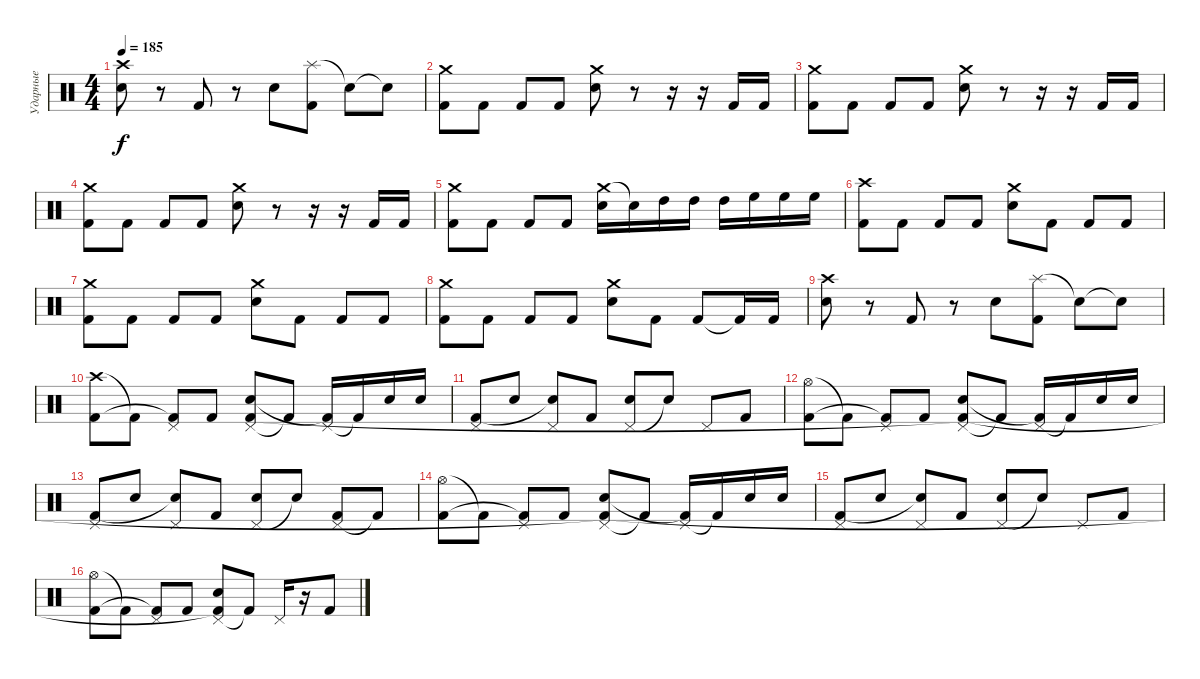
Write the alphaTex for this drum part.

\track ("Ударные" "Ударные") {instrument percussion}
\staff {score}
\articulation defaults
\ts (4 4)
\tempo 185
\clef neutral
\ks c
("Crash high (hit)" "Electric Snare (hit)").8{dy f} r.8 "Kick (hit) 2".8 r.8 "Electric Snare (hit)".8 ("Splash (hit)" "Kick (hit) 2").8 "Snare (hit)"{t}.8 "Snare (hit)"{t}.8 |
("Crash medium (hit)" "Kick (hit) 2").8 "Kick (hit) 2".8 "Kick (hit) 2".8 "Kick (hit) 2".8 ("Crash medium (hit)" "Electric Snare (hit)").8 r.8 r.16 r.16 "Kick (hit) 2".16 "Kick (hit) 2".16 |
("Crash medium (hit)" "Kick (hit) 2").8 "Kick (hit) 2".8 "Kick (hit) 2".8 "Kick (hit) 2".8 ("Crash medium (hit)" "Electric Snare (hit)").8 r.8 r.16 r.16 "Kick (hit) 2".16 "Kick (hit) 2".16 |
("Crash medium (hit)" "Kick (hit) 2").8 "Kick (hit) 2".8 "Kick (hit) 2".8 "Kick (hit) 2".8 ("Crash medium (hit)" "Electric Snare (hit)").8 r.8 r.16 r.16 "Kick (hit) 2".16 "Kick (hit) 2".16 |
("Crash medium (hit)" "Kick (hit) 2").8 "Kick (hit) 2".8 "Kick (hit) 2".8 "Kick (hit) 2".8 ("Crash medium (hit)" "Electric Snare (hit)").16 "Electric Snare (hit)"{t}.16 "High Tom (hit)".16 "High Tom (hit)".16 "High Tom (hit)".16 "High Floor Tom (hit)".16 "High Floor Tom (hit)".16 "High Floor Tom (hit)".16 |
("Crash high (hit)" "Kick (hit) 2").8 "Kick (hit) 2".8 "Kick (hit) 2".8 "Kick (hit) 2".8 ("Crash medium (hit)" "Electric Snare (hit)").8 "Kick (hit) 2".8 "Kick (hit) 2".8 "Kick (hit) 2".8 |
("Crash medium (hit)" "Kick (hit) 2").8 "Kick (hit) 2".8 "Kick (hit) 2".8 "Kick (hit) 2".8 ("Crash medium (hit)" "Electric Snare (hit)").8 "Kick (hit) 2".8 "Kick (hit) 2".8 "Kick (hit) 2".8 |
("Crash medium (hit)" "Kick (hit) 2").8 "Kick (hit) 2".8 "Kick (hit) 2".8 "Kick (hit) 2".8 ("Crash medium (hit)" "Electric Snare (hit)").8 "Kick (hit) 2".8 "Kick (hit) 2".8 "Kick (hit) 2"{t}.16 "Kick (hit) 2".16 |
("Crash high (hit)" "Electric Snare (hit)").8 r.8 "Kick (hit) 2".8 r.8 "Electric Snare (hit)".8 ("Splash (hit)" "Kick (hit) 2").8 "Snare (hit)"{t}.8 "Snare (hit)"{t}.8 |
("Crash high (hit)" "Kick (hit) 2").8 "Kick (hit) 2"{t}.8 ("Pedal Hi-Hat (hit)" "Kick (hit) 2"{t}).8 "Kick (hit) 2".8 ("Pedal Hi-Hat (hit)" "Electric Snare (hit)" "Kick (hit) 2").8 "Kick (hit) 2"{t}.8 ("Pedal Hi-Hat (hit)" "Kick (hit) 2"{t}).16 "Kick (hit) 2"{t}.16 "Electric Snare (hit)".16 "Electric Snare (hit)".16 |
("Pedal Hi-Hat (hit)" "Kick (hit) 2").8 "Electric Snare (hit)".8 ("Pedal Hi-Hat (hit)" "Snare (hit)"{t}).8 "Kick (hit) 2".8 ("Pedal Hi-Hat (hit)" "Electric Snare (hit)").8 "Electric Snare (hit)"{t}.8 "Pedal Hi-Hat (hit)".8 "Kick (hit) 2".8 |
("Hi-Hat (open)" "Kick (hit) 2").8 "Kick (hit) 2"{t}.8 ("Pedal Hi-Hat (hit)" "Kick (hit) 2"{t}).8 "Kick (hit) 2".8 ("Pedal Hi-Hat (hit)" "Electric Snare (hit)" "Kick (hit) 2"{t}).8 "Kick (hit) 2"{t}.8 ("Pedal Hi-Hat (hit)" "Kick (hit) 2"{t}).16 "Kick (hit) 2"{t}.16 "Electric Snare (hit)".16 "Electric Snare (hit)".16 |
("Pedal Hi-Hat (hit)" "Kick (hit) 2").8 "Electric Snare (hit)".8 ("Pedal Hi-Hat (hit)" "Snare (hit)"{t}).8 "Kick (hit) 2".8 ("Pedal Hi-Hat (hit)" "Electric Snare (hit)").8 "Electric Snare (hit)"{t}.8 ("Pedal Hi-Hat (hit)" "Kick (hit) 2").8 "Kick (hit) 2"{t}.8 |
("Hi-Hat (open)" "Kick (hit) 2").8 "Kick (hit) 2"{t}.8 ("Pedal Hi-Hat (hit)" "Kick (hit) 2"{t}).8 "Kick (hit) 2".8 ("Pedal Hi-Hat (hit)" "Electric Snare (hit)" "Kick (hit) 2"{t}).8 "Kick (hit) 2"{t}.8 ("Pedal Hi-Hat (hit)" "Kick (hit) 2"{t}).16 "Kick (hit) 2"{t}.16 "Electric Snare (hit)".16 "Electric Snare (hit)".16 |
("Pedal Hi-Hat (hit)" "Kick (hit) 2").8 "Electric Snare (hit)".8 ("Pedal Hi-Hat (hit)" "Snare (hit)"{t}).8 "Kick (hit) 2".8 ("Pedal Hi-Hat (hit)" "Electric Snare (hit)").8 "Electric Snare (hit)"{t}.8 "Pedal Hi-Hat (hit)".8 "Kick (hit) 2".8 |
("Hi-Hat (open)" "Kick (hit) 2").8 "Kick (hit) 2"{t}.8 ("Pedal Hi-Hat (hit)" "Kick (hit) 2"{t}).8 "Kick (hit) 2".8 ("Pedal Hi-Hat (hit)" "Electric Snare (hit)" "Kick (hit) 2"{t}).8 "Kick (hit) 2"{t}.8 "Pedal Hi-Hat (hit)".16 r.16 "Kick (hit) 2".8
